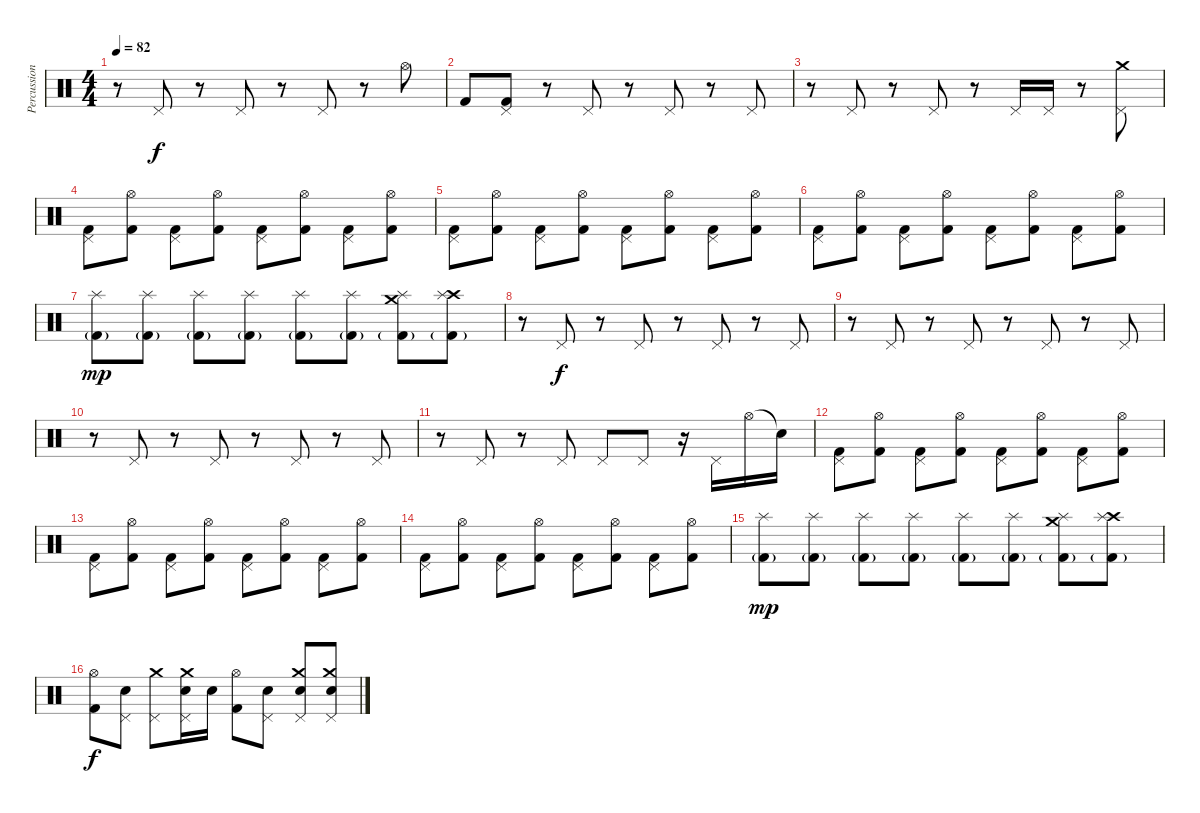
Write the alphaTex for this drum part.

\track ("Percussion" "Percussion") {instrument percussion}
\staff {score}
\articulation defaults
\ts (4 4)
\tempo 82
\clef neutral
\ks c
r.8{dy f} "Pedal Hi-Hat (hit)".8 r.8 "Pedal Hi-Hat (hit)".8 r.8 "Pedal Hi-Hat (hit)".8 r.8 "Hi-Hat (open)".8 |
"Kick (hit) 2".8 ("Pedal Hi-Hat (hit)" "Kick (hit) 2").8 r.8 "Pedal Hi-Hat (hit)".8 r.8 "Pedal Hi-Hat (hit)".8 r.8 "Pedal Hi-Hat (hit)".8 |
r.8 "Pedal Hi-Hat (hit)".8 r.8 "Pedal Hi-Hat (hit)".8 r.8 "Pedal Hi-Hat (hit)".16 "Pedal Hi-Hat (hit)".16 r.8 ("Crash medium (hit)" "Pedal Hi-Hat (hit)").8 |
("Pedal Hi-Hat (hit)" "Kick (hit) 2").8 ("Hi-Hat (open)" "Kick (hit) 2").8 ("Pedal Hi-Hat (hit)" "Kick (hit) 2").8 ("Hi-Hat (open)" "Kick (hit) 2").8 ("Pedal Hi-Hat (hit)" "Kick (hit) 2").8 ("Hi-Hat (open)" "Kick (hit) 2").8 ("Pedal Hi-Hat (hit)" "Kick (hit) 2").8 ("Hi-Hat (open)" "Kick (hit) 2").8 |
("Pedal Hi-Hat (hit)" "Kick (hit) 2").8 ("Hi-Hat (open)" "Kick (hit) 2").8 ("Pedal Hi-Hat (hit)" "Kick (hit) 2").8 ("Hi-Hat (open)" "Kick (hit) 2").8 ("Pedal Hi-Hat (hit)" "Kick (hit) 2").8 ("Hi-Hat (open)" "Kick (hit) 2").8 ("Pedal Hi-Hat (hit)" "Kick (hit) 2").8 ("Hi-Hat (open)" "Kick (hit) 2").8 |
("Pedal Hi-Hat (hit)" "Kick (hit) 2").8 ("Hi-Hat (open)" "Kick (hit) 2").8 ("Pedal Hi-Hat (hit)" "Kick (hit) 2").8 ("Hi-Hat (open)" "Kick (hit) 2").8 ("Pedal Hi-Hat (hit)" "Kick (hit) 2").8 ("Hi-Hat (open)" "Kick (hit) 2").8 ("Pedal Hi-Hat (hit)" "Kick (hit) 2").8 ("Hi-Hat (open)" "Kick (hit) 2").8 |
("Splash (hit)" "Kick (hit) 2"{g}).8{dy mp} ("Splash (hit)" "Kick (hit) 2"{g}).8 ("Splash (hit)" "Kick (hit) 2"{g}).8 ("Splash (hit)" "Kick (hit) 2"{g}).8 ("Splash (hit)" "Kick (hit) 2"{g}).8 ("Splash (hit)" "Kick (hit) 2"{g}).8 ("Crash medium (hit)" "Splash (hit)" "Kick (hit) 2"{g}).8 ("Crash high (hit)" "Splash (hit)" "Kick (hit) 2"{g}).8 |
r.8 "Pedal Hi-Hat (hit)".8{dy f} r.8 "Pedal Hi-Hat (hit)".8 r.8 "Pedal Hi-Hat (hit)".8 r.8 "Pedal Hi-Hat (hit)".8 |
r.8 "Pedal Hi-Hat (hit)".8 r.8 "Pedal Hi-Hat (hit)".8 r.8 "Pedal Hi-Hat (hit)".8 r.8 "Pedal Hi-Hat (hit)".8 |
r.8 "Pedal Hi-Hat (hit)".8 r.8 "Pedal Hi-Hat (hit)".8 r.8 "Pedal Hi-Hat (hit)".8 r.8 "Pedal Hi-Hat (hit)".8 |
r.8 "Pedal Hi-Hat (hit)".8 r.8 "Pedal Hi-Hat (hit)".8 "Pedal Hi-Hat (hit)".8 "Pedal Hi-Hat (hit)".8 r.16 "Pedal Hi-Hat (hit)".16 "Hi-Hat (open)".16 "Snare (hit)"{t}.16 |
("Pedal Hi-Hat (hit)" "Kick (hit) 2").8 ("Hi-Hat (open)" "Kick (hit) 2").8 ("Pedal Hi-Hat (hit)" "Kick (hit) 2").8 ("Hi-Hat (open)" "Kick (hit) 2").8 ("Pedal Hi-Hat (hit)" "Kick (hit) 2").8 ("Hi-Hat (open)" "Kick (hit) 2").8 ("Pedal Hi-Hat (hit)" "Kick (hit) 2").8 ("Hi-Hat (open)" "Kick (hit) 2").8 |
("Pedal Hi-Hat (hit)" "Kick (hit) 2").8 ("Hi-Hat (open)" "Kick (hit) 2").8 ("Pedal Hi-Hat (hit)" "Kick (hit) 2").8 ("Hi-Hat (open)" "Kick (hit) 2").8 ("Pedal Hi-Hat (hit)" "Kick (hit) 2").8 ("Hi-Hat (open)" "Kick (hit) 2").8 ("Pedal Hi-Hat (hit)" "Kick (hit) 2").8 ("Hi-Hat (open)" "Kick (hit) 2").8 |
("Pedal Hi-Hat (hit)" "Kick (hit) 2").8 ("Hi-Hat (open)" "Kick (hit) 2").8 ("Pedal Hi-Hat (hit)" "Kick (hit) 2").8 ("Hi-Hat (open)" "Kick (hit) 2").8 ("Pedal Hi-Hat (hit)" "Kick (hit) 2").8 ("Hi-Hat (open)" "Kick (hit) 2").8 ("Pedal Hi-Hat (hit)" "Kick (hit) 2").8 ("Hi-Hat (open)" "Kick (hit) 2").8 |
("Splash (hit)" "Kick (hit) 2"{g}).8{dy mp} ("Splash (hit)" "Kick (hit) 2"{g}).8 ("Splash (hit)" "Kick (hit) 2"{g}).8 ("Splash (hit)" "Kick (hit) 2"{g}).8 ("Splash (hit)" "Kick (hit) 2"{g}).8 ("Splash (hit)" "Kick (hit) 2"{g}).8 ("Crash medium (hit)" "Splash (hit)" "Kick (hit) 2"{g}).8 ("Crash high (hit)" "Splash (hit)" "Kick (hit) 2"{g}).8 |
("Kick (hit) 2" "Hi-Hat (open)").8{dy f} ("Pedal Hi-Hat (hit)" "Snare (hit) 2").8 ("Crash medium (hit)" "Pedal Hi-Hat (hit)").8 ("Crash medium (hit)" "Pedal Hi-Hat (hit)" "Snare (hit) 2").16 "Snare (hit) 2".16 ("Kick (hit) 2" "Hi-Hat (open)").8 ("Pedal Hi-Hat (hit)" "Snare (hit) 2").8 ("Crash medium (hit)" "Pedal Hi-Hat (hit)" "Snare (hit) 2").8 ("Crash medium (hit)" "Pedal Hi-Hat (hit)" "Snare (hit) 2").8
